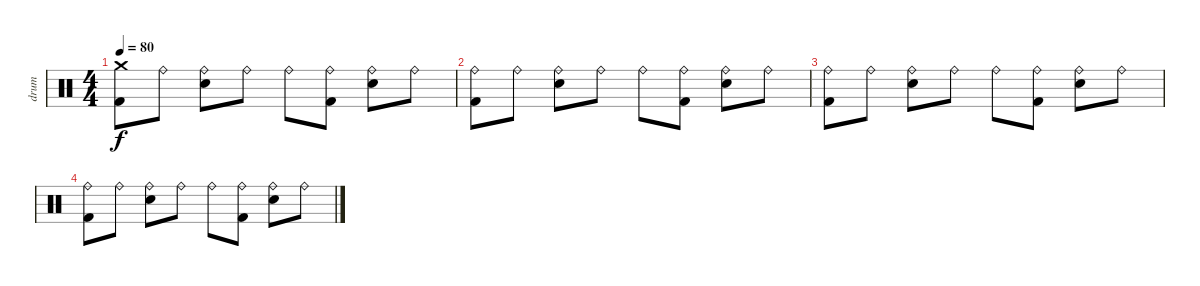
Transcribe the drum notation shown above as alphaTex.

\track ("drum" "drum") {instrument percussion}
\staff {score}
\articulation defaults
\ts (4 4)
\tempo 80
\clef neutral
\ks c
("Crash medium (hit)" "Kick (hit) 2").8{dy f} "Ride (bell)".8 ("Ride (bell)" "Snare (hit) 2").8 "Ride (bell)".8 "Ride (bell)".8 ("Ride (bell)" "Kick (hit) 2").8 ("Ride (bell)" "Snare (hit) 2").8 "Ride (bell)".8 |
("Ride (bell)" "Kick (hit) 2").8 "Ride (bell)".8 ("Ride (bell)" "Snare (hit) 2").8 "Ride (bell)".8 "Ride (bell)".8 ("Ride (bell)" "Kick (hit) 2").8 ("Ride (bell)" "Snare (hit) 2").8 "Ride (bell)".8 |
("Ride (bell)" "Kick (hit) 2").8 "Ride (bell)".8 ("Ride (bell)" "Snare (hit) 2").8 "Ride (bell)".8 "Ride (bell)".8 ("Ride (bell)" "Kick (hit) 2").8 ("Ride (bell)" "Snare (hit) 2").8 "Ride (bell)".8 |
("Ride (bell)" "Kick (hit) 2").8 "Ride (bell)".8 ("Ride (bell)" "Snare (hit) 2").8 "Ride (bell)".8 "Ride (bell)".8 ("Ride (bell)" "Kick (hit) 2").8 ("Ride (bell)" "Snare (hit) 2").8 "Ride (bell)".8
